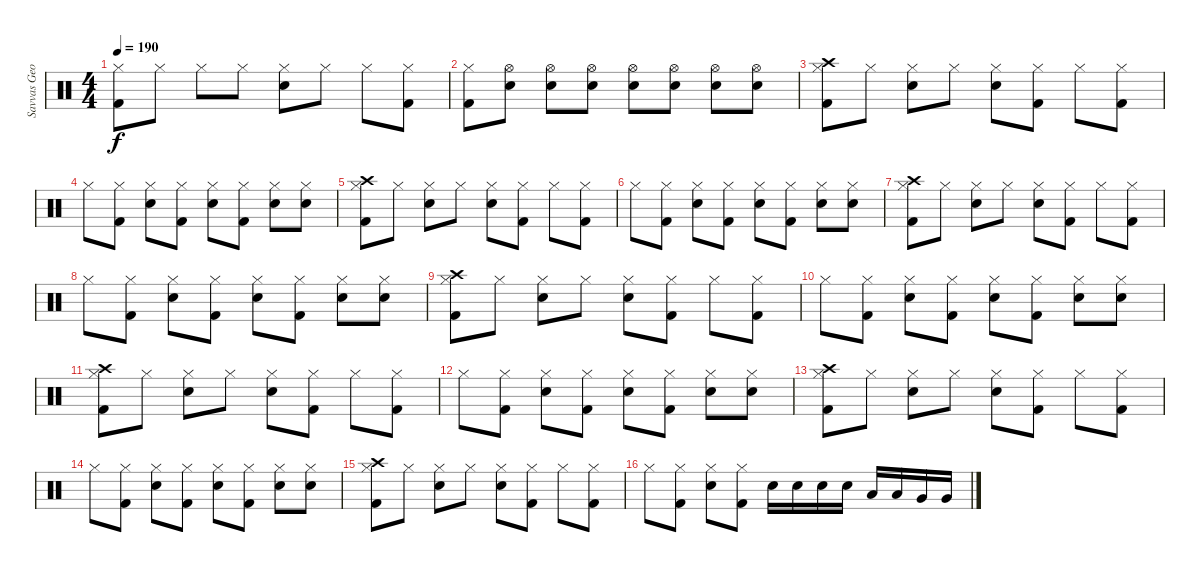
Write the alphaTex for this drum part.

\track ("Savvas Georgiadis" "Savvas Geo") {instrument percussion}
\staff {score}
\articulation defaults
\ts (4 4)
\tempo 190
\clef neutral
\ks c
("Hi-Hat (closed)" "Kick (hit) 2").8{dy f} "Hi-Hat (closed)".8 "Hi-Hat (closed)".8 "Hi-Hat (closed)".8 ("Hi-Hat (closed)" "Electric Snare (hit)").8 "Hi-Hat (closed)".8 "Hi-Hat (closed)".8 ("Hi-Hat (closed)" "Kick (hit) 2").8 |
("Hi-Hat (closed)" "Kick (hit) 2").8 ("Hi-Hat (open)" "Electric Snare (hit)").8 ("Hi-Hat (open)" "Electric Snare (hit)").8 ("Hi-Hat (open)" "Electric Snare (hit)").8 ("Hi-Hat (open)" "Electric Snare (hit)").8 ("Hi-Hat (open)" "Electric Snare (hit)").8 ("Hi-Hat (open)" "Electric Snare (hit)").8 ("Hi-Hat (open)" "Electric Snare (hit)").8 |
("Crash high (hit)" "Hi-Hat (closed)" "Kick (hit) 2").8 "Hi-Hat (closed)".8 ("Hi-Hat (closed)" "Electric Snare (hit)").8 "Hi-Hat (closed)".8 ("Hi-Hat (closed)" "Electric Snare (hit)").8 ("Hi-Hat (closed)" "Kick (hit) 2").8 "Hi-Hat (closed)".8 ("Hi-Hat (closed)" "Kick (hit) 2").8 |
"Hi-Hat (closed)".8 ("Hi-Hat (closed)" "Kick (hit) 2").8 ("Hi-Hat (closed)" "Electric Snare (hit)").8 ("Hi-Hat (closed)" "Kick (hit) 2").8 ("Hi-Hat (closed)" "Electric Snare (hit)").8 ("Hi-Hat (closed)" "Kick (hit) 2").8 ("Hi-Hat (closed)" "Electric Snare (hit)").8 ("Hi-Hat (closed)" "Electric Snare (hit)").8 |
("Crash high (hit)" "Hi-Hat (closed)" "Kick (hit) 2").8 "Hi-Hat (closed)".8 ("Hi-Hat (closed)" "Electric Snare (hit)").8 "Hi-Hat (closed)".8 ("Hi-Hat (closed)" "Electric Snare (hit)").8 ("Hi-Hat (closed)" "Kick (hit) 2").8 "Hi-Hat (closed)".8 ("Hi-Hat (closed)" "Kick (hit) 2").8 |
"Hi-Hat (closed)".8 ("Hi-Hat (closed)" "Kick (hit) 2").8 ("Hi-Hat (closed)" "Electric Snare (hit)").8 ("Hi-Hat (closed)" "Kick (hit) 2").8 ("Hi-Hat (closed)" "Electric Snare (hit)").8 ("Hi-Hat (closed)" "Kick (hit) 2").8 ("Hi-Hat (closed)" "Electric Snare (hit)").8 ("Hi-Hat (closed)" "Electric Snare (hit)").8 |
("Crash high (hit)" "Hi-Hat (closed)" "Kick (hit) 2").8 "Hi-Hat (closed)".8 ("Hi-Hat (closed)" "Electric Snare (hit)").8 "Hi-Hat (closed)".8 ("Hi-Hat (closed)" "Electric Snare (hit)").8 ("Hi-Hat (closed)" "Kick (hit) 2").8 "Hi-Hat (closed)".8 ("Hi-Hat (closed)" "Kick (hit) 2").8 |
"Hi-Hat (closed)".8 ("Hi-Hat (closed)" "Kick (hit) 2").8 ("Hi-Hat (closed)" "Electric Snare (hit)").8 ("Hi-Hat (closed)" "Kick (hit) 2").8 ("Hi-Hat (closed)" "Electric Snare (hit)").8 ("Hi-Hat (closed)" "Kick (hit) 2").8 ("Hi-Hat (closed)" "Electric Snare (hit)").8 ("Hi-Hat (closed)" "Electric Snare (hit)").8 |
("Crash high (hit)" "Hi-Hat (closed)" "Kick (hit) 2").8 "Hi-Hat (closed)".8 ("Hi-Hat (closed)" "Electric Snare (hit)").8 "Hi-Hat (closed)".8 ("Hi-Hat (closed)" "Electric Snare (hit)").8 ("Hi-Hat (closed)" "Kick (hit) 2").8 "Hi-Hat (closed)".8 ("Hi-Hat (closed)" "Kick (hit) 2").8 |
"Hi-Hat (closed)".8 ("Hi-Hat (closed)" "Kick (hit) 2").8 ("Hi-Hat (closed)" "Electric Snare (hit)").8 ("Hi-Hat (closed)" "Kick (hit) 2").8 ("Hi-Hat (closed)" "Electric Snare (hit)").8 ("Hi-Hat (closed)" "Kick (hit) 2").8 ("Hi-Hat (closed)" "Electric Snare (hit)").8 ("Hi-Hat (closed)" "Electric Snare (hit)").8 |
("Crash high (hit)" "Hi-Hat (closed)" "Kick (hit) 2").8 "Hi-Hat (closed)".8 ("Hi-Hat (closed)" "Electric Snare (hit)").8 "Hi-Hat (closed)".8 ("Hi-Hat (closed)" "Electric Snare (hit)").8 ("Hi-Hat (closed)" "Kick (hit) 2").8 "Hi-Hat (closed)".8 ("Hi-Hat (closed)" "Kick (hit) 2").8 |
"Hi-Hat (closed)".8 ("Hi-Hat (closed)" "Kick (hit) 2").8 ("Hi-Hat (closed)" "Electric Snare (hit)").8 ("Hi-Hat (closed)" "Kick (hit) 2").8 ("Hi-Hat (closed)" "Electric Snare (hit)").8 ("Hi-Hat (closed)" "Kick (hit) 2").8 ("Hi-Hat (closed)" "Electric Snare (hit)").8 ("Hi-Hat (closed)" "Electric Snare (hit)").8 |
("Crash high (hit)" "Hi-Hat (closed)" "Kick (hit) 2").8 "Hi-Hat (closed)".8 ("Hi-Hat (closed)" "Electric Snare (hit)").8 "Hi-Hat (closed)".8 ("Hi-Hat (closed)" "Electric Snare (hit)").8 ("Hi-Hat (closed)" "Kick (hit) 2").8 "Hi-Hat (closed)".8 ("Hi-Hat (closed)" "Kick (hit) 2").8 |
"Hi-Hat (closed)".8 ("Hi-Hat (closed)" "Kick (hit) 2").8 ("Hi-Hat (closed)" "Electric Snare (hit)").8 ("Hi-Hat (closed)" "Kick (hit) 2").8 ("Hi-Hat (closed)" "Electric Snare (hit)").8 ("Hi-Hat (closed)" "Kick (hit) 2").8 ("Hi-Hat (closed)" "Electric Snare (hit)").8 ("Hi-Hat (closed)" "Electric Snare (hit)").8 |
("Crash high (hit)" "Hi-Hat (closed)" "Kick (hit) 2").8 "Hi-Hat (closed)".8 ("Hi-Hat (closed)" "Electric Snare (hit)").8 "Hi-Hat (closed)".8 ("Hi-Hat (closed)" "Electric Snare (hit)").8 ("Hi-Hat (closed)" "Kick (hit) 2").8 "Hi-Hat (closed)".8 ("Hi-Hat (closed)" "Kick (hit) 2").8 |
"Hi-Hat (closed)".8 ("Hi-Hat (closed)" "Kick (hit) 2").8 ("Hi-Hat (closed)" "Electric Snare (hit)").8 ("Hi-Hat (closed)" "Kick (hit) 2").8 "Electric Snare (hit)".16 "Electric Snare (hit)".16 "Electric Snare (hit)".16 "Electric Snare (hit)".16 "Low Tom (hit)".16 "Low Tom (hit)".16 "Very Low Tom (hit)".16 "Very Low Tom (hit)".16
